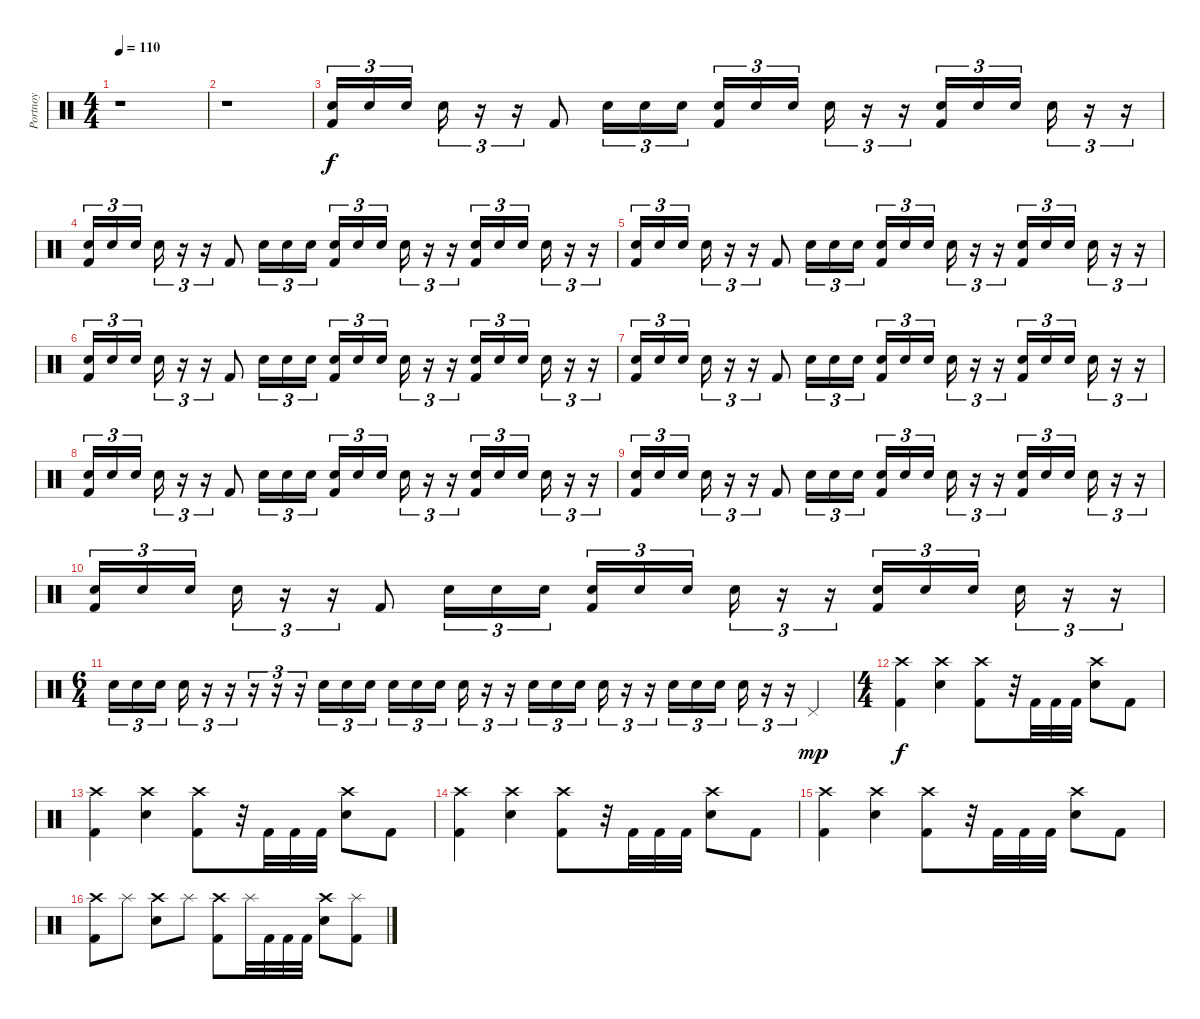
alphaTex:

\track ("Portnoy" "Portnoy") {instrument percussion}
\staff {score}
\articulation defaults
\ts (4 4)
\tempo 110
\clef neutral
\ks c
r.1{dy p} |
r.1 |
("Kick (hit) 2" "Snare (hit) 2").16{tu (3 2) dy f volume 0} "Snare (hit) 2".16{tu (3 2) volume 11} "Snare (hit) 2".16{tu (3 2)} "Snare (hit) 2".16{tu (3 2)} r.16{tu (3 2)} r.16{tu (3 2)} "Kick (hit) 2".8 "Snare (hit) 2".16{tu (3 2)} "Snare (hit) 2".16{tu (3 2)} "Snare (hit) 2".16{tu (3 2)} ("Kick (hit) 2" "Snare (hit) 2").16{tu (3 2)} "Snare (hit) 2".16{tu (3 2)} "Snare (hit) 2".16{tu (3 2)} "Snare (hit) 2".16{tu (3 2)} r.16{tu (3 2)} r.16{tu (3 2)} ("Kick (hit) 2" "Snare (hit) 2").16{tu (3 2)} "Snare (hit) 2".16{tu (3 2)} "Snare (hit) 2".16{tu (3 2)} "Snare (hit) 2".16{tu (3 2)} r.16{tu (3 2)} r.16{tu (3 2)} |
("Kick (hit) 2" "Snare (hit) 2").16{tu (3 2)} "Snare (hit) 2".16{tu (3 2)} "Snare (hit) 2".16{tu (3 2)} "Snare (hit) 2".16{tu (3 2)} r.16{tu (3 2)} r.16{tu (3 2)} "Kick (hit) 2".8 "Snare (hit) 2".16{tu (3 2)} "Snare (hit) 2".16{tu (3 2)} "Snare (hit) 2".16{tu (3 2)} ("Kick (hit) 2" "Snare (hit) 2").16{tu (3 2)} "Snare (hit) 2".16{tu (3 2)} "Snare (hit) 2".16{tu (3 2)} "Snare (hit) 2".16{tu (3 2)} r.16{tu (3 2)} r.16{tu (3 2)} ("Kick (hit) 2" "Snare (hit) 2").16{tu (3 2)} "Snare (hit) 2".16{tu (3 2)} "Snare (hit) 2".16{tu (3 2)} "Snare (hit) 2".16{tu (3 2)} r.16{tu (3 2)} r.16{tu (3 2)} |
("Kick (hit) 2" "Snare (hit) 2").16{tu (3 2)} "Snare (hit) 2".16{tu (3 2)} "Snare (hit) 2".16{tu (3 2)} "Snare (hit) 2".16{tu (3 2)} r.16{tu (3 2)} r.16{tu (3 2)} "Kick (hit) 2".8 "Snare (hit) 2".16{tu (3 2)} "Snare (hit) 2".16{tu (3 2)} "Snare (hit) 2".16{tu (3 2)} ("Kick (hit) 2" "Snare (hit) 2").16{tu (3 2)} "Snare (hit) 2".16{tu (3 2)} "Snare (hit) 2".16{tu (3 2)} "Snare (hit) 2".16{tu (3 2)} r.16{tu (3 2)} r.16{tu (3 2)} ("Kick (hit) 2" "Snare (hit) 2").16{tu (3 2)} "Snare (hit) 2".16{tu (3 2)} "Snare (hit) 2".16{tu (3 2)} "Snare (hit) 2".16{tu (3 2)} r.16{tu (3 2)} r.16{tu (3 2)} |
("Kick (hit) 2" "Snare (hit) 2").16{tu (3 2)} "Snare (hit) 2".16{tu (3 2)} "Snare (hit) 2".16{tu (3 2)} "Snare (hit) 2".16{tu (3 2)} r.16{tu (3 2)} r.16{tu (3 2)} "Kick (hit) 2".8 "Snare (hit) 2".16{tu (3 2)} "Snare (hit) 2".16{tu (3 2)} "Snare (hit) 2".16{tu (3 2)} ("Kick (hit) 2" "Snare (hit) 2").16{tu (3 2)} "Snare (hit) 2".16{tu (3 2)} "Snare (hit) 2".16{tu (3 2)} "Snare (hit) 2".16{tu (3 2)} r.16{tu (3 2)} r.16{tu (3 2)} ("Kick (hit) 2" "Snare (hit) 2").16{tu (3 2)} "Snare (hit) 2".16{tu (3 2)} "Snare (hit) 2".16{tu (3 2)} "Snare (hit) 2".16{tu (3 2)} r.16{tu (3 2)} r.16{tu (3 2)} |
("Kick (hit) 2" "Snare (hit) 2").16{tu (3 2)} "Snare (hit) 2".16{tu (3 2)} "Snare (hit) 2".16{tu (3 2)} "Snare (hit) 2".16{tu (3 2)} r.16{tu (3 2)} r.16{tu (3 2)} "Kick (hit) 2".8 "Snare (hit) 2".16{tu (3 2)} "Snare (hit) 2".16{tu (3 2)} "Snare (hit) 2".16{tu (3 2)} ("Kick (hit) 2" "Snare (hit) 2").16{tu (3 2)} "Snare (hit) 2".16{tu (3 2)} "Snare (hit) 2".16{tu (3 2)} "Snare (hit) 2".16{tu (3 2)} r.16{tu (3 2)} r.16{tu (3 2)} ("Kick (hit) 2" "Snare (hit) 2").16{tu (3 2)} "Snare (hit) 2".16{tu (3 2)} "Snare (hit) 2".16{tu (3 2)} "Snare (hit) 2".16{tu (3 2)} r.16{tu (3 2)} r.16{tu (3 2)} |
("Kick (hit) 2" "Snare (hit) 2").16{tu (3 2)} "Snare (hit) 2".16{tu (3 2)} "Snare (hit) 2".16{tu (3 2)} "Snare (hit) 2".16{tu (3 2)} r.16{tu (3 2)} r.16{tu (3 2)} "Kick (hit) 2".8 "Snare (hit) 2".16{tu (3 2)} "Snare (hit) 2".16{tu (3 2)} "Snare (hit) 2".16{tu (3 2)} ("Kick (hit) 2" "Snare (hit) 2").16{tu (3 2)} "Snare (hit) 2".16{tu (3 2)} "Snare (hit) 2".16{tu (3 2)} "Snare (hit) 2".16{tu (3 2)} r.16{tu (3 2)} r.16{tu (3 2)} ("Kick (hit) 2" "Snare (hit) 2").16{tu (3 2)} "Snare (hit) 2".16{tu (3 2)} "Snare (hit) 2".16{tu (3 2)} "Snare (hit) 2".16{tu (3 2)} r.16{tu (3 2)} r.16{tu (3 2)} |
("Kick (hit) 2" "Snare (hit) 2").16{tu (3 2)} "Snare (hit) 2".16{tu (3 2)} "Snare (hit) 2".16{tu (3 2)} "Snare (hit) 2".16{tu (3 2)} r.16{tu (3 2)} r.16{tu (3 2)} "Kick (hit) 2".8 "Snare (hit) 2".16{tu (3 2)} "Snare (hit) 2".16{tu (3 2)} "Snare (hit) 2".16{tu (3 2)} ("Kick (hit) 2" "Snare (hit) 2").16{tu (3 2)} "Snare (hit) 2".16{tu (3 2)} "Snare (hit) 2".16{tu (3 2)} "Snare (hit) 2".16{tu (3 2)} r.16{tu (3 2)} r.16{tu (3 2)} ("Kick (hit) 2" "Snare (hit) 2").16{tu (3 2)} "Snare (hit) 2".16{tu (3 2)} "Snare (hit) 2".16{tu (3 2)} "Snare (hit) 2".16{tu (3 2)} r.16{tu (3 2)} r.16{tu (3 2)} |
("Kick (hit) 2" "Snare (hit) 2").16{tu (3 2)} "Snare (hit) 2".16{tu (3 2)} "Snare (hit) 2".16{tu (3 2)} "Snare (hit) 2".16{tu (3 2)} r.16{tu (3 2)} r.16{tu (3 2)} "Kick (hit) 2".8 "Snare (hit) 2".16{tu (3 2)} "Snare (hit) 2".16{tu (3 2)} "Snare (hit) 2".16{tu (3 2)} ("Kick (hit) 2" "Snare (hit) 2").16{tu (3 2)} "Snare (hit) 2".16{tu (3 2)} "Snare (hit) 2".16{tu (3 2)} "Snare (hit) 2".16{tu (3 2)} r.16{tu (3 2)} r.16{tu (3 2)} ("Kick (hit) 2" "Snare (hit) 2").16{tu (3 2)} "Snare (hit) 2".16{tu (3 2)} "Snare (hit) 2".16{tu (3 2)} "Snare (hit) 2".16{tu (3 2)} r.16{tu (3 2)} r.16{tu (3 2)} |
\ts (6 4)
"Snare (hit) 2".16{tu (3 2)} "Snare (hit) 2".16{tu (3 2)} "Snare (hit) 2".16{tu (3 2)} "Snare (hit) 2".16{tu (3 2)} r.16{tu (3 2)} r.16{tu (3 2)} r.16{tu (3 2)} r.16{tu (3 2)} r.16{tu (3 2)} "Snare (hit) 2".16{tu (3 2)} "Snare (hit) 2".16{tu (3 2)} "Snare (hit) 2".16{tu (3 2)} "Snare (hit) 2".16{tu (3 2)} "Snare (hit) 2".16{tu (3 2)} "Snare (hit) 2".16{tu (3 2)} "Snare (hit) 2".16{tu (3 2)} r.16{tu (3 2)} r.16{tu (3 2)} "Snare (hit) 2".16{tu (3 2)} "Snare (hit) 2".16{tu (3 2)} "Snare (hit) 2".16{tu (3 2)} "Snare (hit) 2".16{tu (3 2)} r.16{tu (3 2)} r.16{tu (3 2)} "Snare (hit) 2".16{tu (3 2)} "Snare (hit) 2".16{tu (3 2)} "Snare (hit) 2".16{tu (3 2)} "Snare (hit) 2".16{tu (3 2)} r.16{tu (3 2)} r.16{tu (3 2)} "Pedal Hi-Hat (hit)".4{dy mp} |
\ts (4 4)
("Kick (hit) 2" "Crash high (hit)").4{dy f} ("Crash high (hit)" "Snare (hit) 2").4 ("Kick (hit) 2" "Crash high (hit)").8 r.32 "Kick (hit) 2".32 "Kick (hit) 2".32 "Kick (hit) 2".32 ("Crash high (hit)" "Snare (hit) 2").8 "Kick (hit) 2".8 |
("Kick (hit) 2" "Crash high (hit)").4 ("Crash high (hit)" "Snare (hit) 2").4 ("Kick (hit) 2" "Crash high (hit)").8 r.32 "Kick (hit) 2".32 "Kick (hit) 2".32 "Kick (hit) 2".32 ("Crash high (hit)" "Snare (hit) 2").8 "Kick (hit) 2".8 |
("Kick (hit) 2" "Crash high (hit)").4 ("Crash high (hit)" "Snare (hit) 2").4 ("Kick (hit) 2" "Crash high (hit)").8 r.32 "Kick (hit) 2".32 "Kick (hit) 2".32 "Kick (hit) 2".32 ("Crash high (hit)" "Snare (hit) 2").8 "Kick (hit) 2".8 |
("Kick (hit) 2" "Crash high (hit)").4 ("Crash high (hit)" "Snare (hit) 2").4 ("Kick (hit) 2" "Crash high (hit)").8 r.32 "Kick (hit) 2".32 "Kick (hit) 2".32 "Kick (hit) 2".32 ("Crash high (hit)" "Snare (hit) 2").8 "Kick (hit) 2".8 |
("Kick (hit) 2" "Crash high (hit)").8 "Splash (hit)".8 ("Crash high (hit)" "Snare (hit) 2").8 "Splash (hit)".8 ("Kick (hit) 2" "Crash high (hit)").8 "Splash (hit)".32 "Kick (hit) 2".32 "Kick (hit) 2".32 "Kick (hit) 2".32 ("Crash high (hit)" "Snare (hit) 2").8 ("Kick (hit) 2" "Splash (hit)").8
